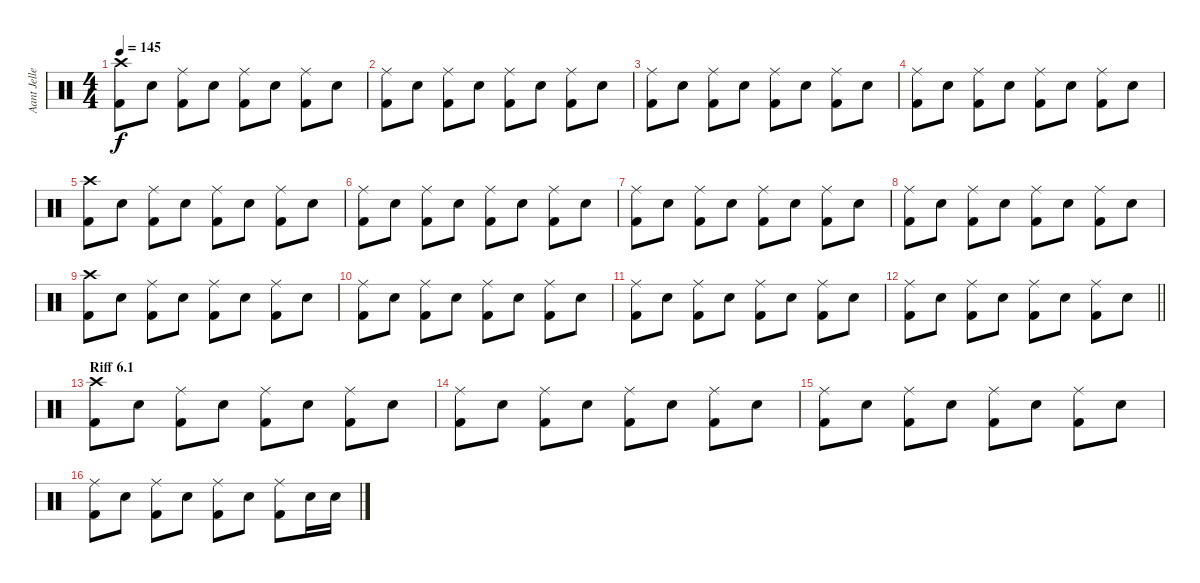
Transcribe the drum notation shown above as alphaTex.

\track ("Aant Jelle" "Aant Jelle") {instrument percussion}
\staff {score}
\articulation defaults
\ts (4 4)
\tempo 145
\clef neutral
\ks c
("Crash high (hit)" "Kick (hit) 2").8{dy f} "Snare (hit) 2".8 ("Ride (middle)" "Kick (hit) 2").8 "Snare (hit) 2".8 ("Ride (middle)" "Kick (hit) 2").8 "Snare (hit) 2".8 ("Ride (middle)" "Kick (hit) 2").8 "Snare (hit) 2".8 |
("Ride (middle)" "Kick (hit) 2").8 "Snare (hit) 2".8 ("Ride (middle)" "Kick (hit) 2").8 "Snare (hit) 2".8 ("Ride (middle)" "Kick (hit) 2").8 "Snare (hit) 2".8 ("Ride (middle)" "Kick (hit) 2").8 "Snare (hit) 2".8 |
("Ride (middle)" "Kick (hit) 2").8 "Snare (hit) 2".8 ("Ride (middle)" "Kick (hit) 2").8 "Snare (hit) 2".8 ("Ride (middle)" "Kick (hit) 2").8 "Snare (hit) 2".8 ("Ride (middle)" "Kick (hit) 2").8 "Snare (hit) 2".8 |
("Ride (middle)" "Kick (hit) 2").8 "Snare (hit) 2".8 ("Ride (middle)" "Kick (hit) 2").8 "Snare (hit) 2".8 ("Ride (middle)" "Kick (hit) 2").8 "Snare (hit) 2".8 ("Ride (middle)" "Kick (hit) 2").8 "Snare (hit) 2".8 |
("Crash high (hit)" "Kick (hit) 2").8 "Snare (hit) 2".8 ("Ride (middle)" "Kick (hit) 2").8 "Snare (hit) 2".8 ("Ride (middle)" "Kick (hit) 2").8 "Snare (hit) 2".8 ("Ride (middle)" "Kick (hit) 2").8 "Snare (hit) 2".8 |
("Ride (middle)" "Kick (hit) 2").8 "Snare (hit) 2".8 ("Ride (middle)" "Kick (hit) 2").8 "Snare (hit) 2".8 ("Ride (middle)" "Kick (hit) 2").8 "Snare (hit) 2".8 ("Ride (middle)" "Kick (hit) 2").8 "Snare (hit) 2".8 |
("Ride (middle)" "Kick (hit) 2").8 "Snare (hit) 2".8 ("Ride (middle)" "Kick (hit) 2").8 "Snare (hit) 2".8 ("Ride (middle)" "Kick (hit) 2").8 "Snare (hit) 2".8 ("Ride (middle)" "Kick (hit) 2").8 "Snare (hit) 2".8 |
("Ride (middle)" "Kick (hit) 2").8 "Snare (hit) 2".8 ("Ride (middle)" "Kick (hit) 2").8 "Snare (hit) 2".8 ("Ride (middle)" "Kick (hit) 2").8 "Snare (hit) 2".8 ("Ride (middle)" "Kick (hit) 2").8 "Snare (hit) 2".8 |
("Crash high (hit)" "Kick (hit) 2").8 "Snare (hit) 2".8 ("Ride (middle)" "Kick (hit) 2").8 "Snare (hit) 2".8 ("Ride (middle)" "Kick (hit) 2").8 "Snare (hit) 2".8 ("Ride (middle)" "Kick (hit) 2").8 "Snare (hit) 2".8 |
("Ride (middle)" "Kick (hit) 2").8 "Snare (hit) 2".8 ("Ride (middle)" "Kick (hit) 2").8 "Snare (hit) 2".8 ("Ride (middle)" "Kick (hit) 2").8 "Snare (hit) 2".8 ("Ride (middle)" "Kick (hit) 2").8 "Snare (hit) 2".8 |
("Ride (middle)" "Kick (hit) 2").8 "Snare (hit) 2".8 ("Ride (middle)" "Kick (hit) 2").8 "Snare (hit) 2".8 ("Ride (middle)" "Kick (hit) 2").8 "Snare (hit) 2".8 ("Ride (middle)" "Kick (hit) 2").8 "Snare (hit) 2".8 |
\barLineRight lightlight
("Ride (middle)" "Kick (hit) 2").8 "Snare (hit) 2".8 ("Ride (middle)" "Kick (hit) 2").8 "Snare (hit) 2".8 ("Ride (middle)" "Kick (hit) 2").8 "Snare (hit) 2".8 ("Ride (middle)" "Kick (hit) 2").8 "Snare (hit) 2".8 |
\section ("" "Riff 6.1")
("Crash high (hit)" "Kick (hit) 2").8 "Snare (hit) 2".8 ("Ride (middle)" "Kick (hit) 2").8 "Snare (hit) 2".8 ("Ride (middle)" "Kick (hit) 2").8 "Snare (hit) 2".8 ("Ride (middle)" "Kick (hit) 2").8 "Snare (hit) 2".8 |
("Ride (middle)" "Kick (hit) 2").8 "Snare (hit) 2".8 ("Ride (middle)" "Kick (hit) 2").8 "Snare (hit) 2".8 ("Ride (middle)" "Kick (hit) 2").8 "Snare (hit) 2".8 ("Ride (middle)" "Kick (hit) 2").8 "Snare (hit) 2".8 |
("Ride (middle)" "Kick (hit) 2").8 "Snare (hit) 2".8 ("Ride (middle)" "Kick (hit) 2").8 "Snare (hit) 2".8 ("Ride (middle)" "Kick (hit) 2").8 "Snare (hit) 2".8 ("Ride (middle)" "Kick (hit) 2").8 "Snare (hit) 2".8 |
("Ride (middle)" "Kick (hit) 2").8 "Snare (hit) 2".8 ("Ride (middle)" "Kick (hit) 2").8 "Snare (hit) 2".8 ("Ride (middle)" "Kick (hit) 2").8 "Snare (hit) 2".8 ("Ride (middle)" "Kick (hit) 2").8 "Snare (hit) 2".16 "Snare (hit) 2".16
